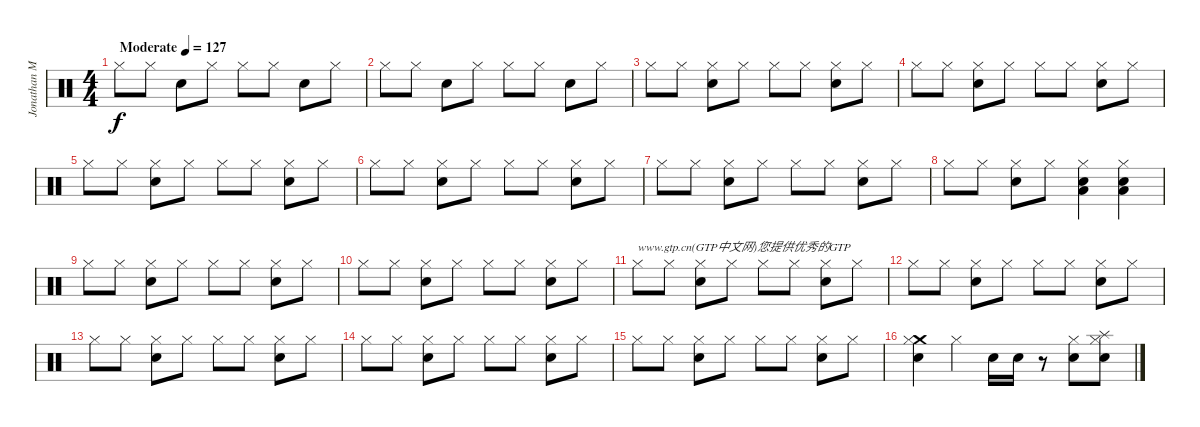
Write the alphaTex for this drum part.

\track ("Jonathan Moover" "Jonathan M") {instrument percussion}
\staff {score}
\articulation defaults
\ts (4 4)
\tempo (127 "Moderate")
\clef neutral
\ks c "Hi-Hat (closed)".8{dy f} "Hi-Hat (closed)".8 "Snare (hit) 2".8 "Hi-Hat (closed)".8 "Hi-Hat (closed)".8 "Hi-Hat (closed)".8 "Snare (hit) 2".8 "Hi-Hat (closed)".8
|
"Hi-Hat (closed)".8 "Hi-Hat (closed)".8 "Snare (hit) 2".8 "Hi-Hat (closed)".8 "Hi-Hat (closed)".8 "Hi-Hat (closed)".8 "Snare (hit) 2".8 "Hi-Hat (closed)".8 |
"Hi-Hat (closed)".8 "Hi-Hat (closed)".8 ("Snare (hit) 2" "Hi-Hat (closed)").8 "Hi-Hat (closed)".8 "Hi-Hat (closed)".8 "Hi-Hat (closed)".8 ("Snare (hit) 2" "Hi-Hat (closed)").8 "Hi-Hat (closed)".8 |
"Hi-Hat (closed)".8 "Hi-Hat (closed)".8 ("Snare (hit) 2" "Hi-Hat (closed)").8 "Hi-Hat (closed)".8 "Hi-Hat (closed)".8 "Hi-Hat (closed)".8 ("Snare (hit) 2" "Hi-Hat (closed)").8 "Hi-Hat (closed)".8 |
"Hi-Hat (closed)".8 "Hi-Hat (closed)".8 ("Snare (hit) 2" "Hi-Hat (closed)").8 "Hi-Hat (closed)".8 "Hi-Hat (closed)".8 "Hi-Hat (closed)".8 ("Snare (hit) 2" "Hi-Hat (closed)").8 "Hi-Hat (closed)".8 |
"Hi-Hat (closed)".8 "Hi-Hat (closed)".8 ("Snare (hit) 2" "Hi-Hat (closed)").8 "Hi-Hat (closed)".8 "Hi-Hat (closed)".8 "Hi-Hat (closed)".8 ("Snare (hit) 2" "Hi-Hat (closed)").8 "Hi-Hat (closed)".8 |
"Hi-Hat (closed)".8 "Hi-Hat (closed)".8 ("Snare (hit) 2" "Hi-Hat (closed)").8 "Hi-Hat (closed)".8 "Hi-Hat (closed)".8 "Hi-Hat (closed)".8 ("Snare (hit) 2" "Hi-Hat (closed)").8 "Hi-Hat (closed)".8 |
"Hi-Hat (closed)".8 "Hi-Hat (closed)".8 ("Snare (hit) 2" "Hi-Hat (closed)").8 "Hi-Hat (closed)".8 ("Hi-Hat (closed)" "Low Floor Tom (hit)" "Snare (hit) 2").4 ("Hi-Hat (closed)" "Low Floor Tom (hit)" "Snare (hit) 2").4 |
"Hi-Hat (closed)".8 "Hi-Hat (closed)".8 ("Snare (hit) 2" "Hi-Hat (closed)").8 "Hi-Hat (closed)".8 "Hi-Hat (closed)".8 "Hi-Hat (closed)".8 ("Snare (hit) 2" "Hi-Hat (closed)").8 "Hi-Hat (closed)".8 |
"Hi-Hat (closed)".8 "Hi-Hat (closed)".8 ("Snare (hit) 2" "Hi-Hat (closed)").8 "Hi-Hat (closed)".8 "Hi-Hat (closed)".8 "Hi-Hat (closed)".8 ("Snare (hit) 2" "Hi-Hat (closed)").8 "Hi-Hat (closed)".8 |
"Hi-Hat (closed)".8{txt "www.gtp.cn(GTP中文网)您提供优秀的GTP"} "Hi-Hat (closed)".8 ("Snare (hit) 2" "Hi-Hat (closed)").8 "Hi-Hat (closed)".8 "Hi-Hat (closed)".8 "Hi-Hat (closed)".8 ("Snare (hit) 2" "Hi-Hat (closed)").8 "Hi-Hat (closed)".8 |
"Hi-Hat (closed)".8 "Hi-Hat (closed)".8 ("Snare (hit) 2" "Hi-Hat (closed)").8 "Hi-Hat (closed)".8 "Hi-Hat (closed)".8 "Hi-Hat (closed)".8 ("Snare (hit) 2" "Hi-Hat (closed)").8 "Hi-Hat (closed)".8 |
"Hi-Hat (closed)".8 "Hi-Hat (closed)".8 ("Snare (hit) 2" "Hi-Hat (closed)").8 "Hi-Hat (closed)".8 "Hi-Hat (closed)".8 "Hi-Hat (closed)".8 ("Snare (hit) 2" "Hi-Hat (closed)").8 "Hi-Hat (closed)".8 |
"Hi-Hat (closed)".8 "Hi-Hat (closed)".8 ("Snare (hit) 2" "Hi-Hat (closed)").8 "Hi-Hat (closed)".8 "Hi-Hat (closed)".8 "Hi-Hat (closed)".8 ("Snare (hit) 2" "Hi-Hat (closed)").8 "Hi-Hat (closed)".8 |
"Hi-Hat (closed)".8 "Hi-Hat (closed)".8 ("Snare (hit) 2" "Hi-Hat (closed)").8 "Hi-Hat (closed)".8 "Hi-Hat (closed)".8 "Hi-Hat (closed)".8 ("Snare (hit) 2" "Hi-Hat (closed)").8 "Hi-Hat (closed)".8 |
("Crash medium (hit)" "Snare (hit) 2" "Hi-Hat (closed)").4 "Hi-Hat (closed)".4 "Electric Snare (hit)".16 "Electric Snare (hit)".16 r.8 ("Snare (hit) 2" "Hi-Hat (closed)").8 ("Splash (hit)" "Snare (hit) 2" "Hi-Hat (closed)").8
